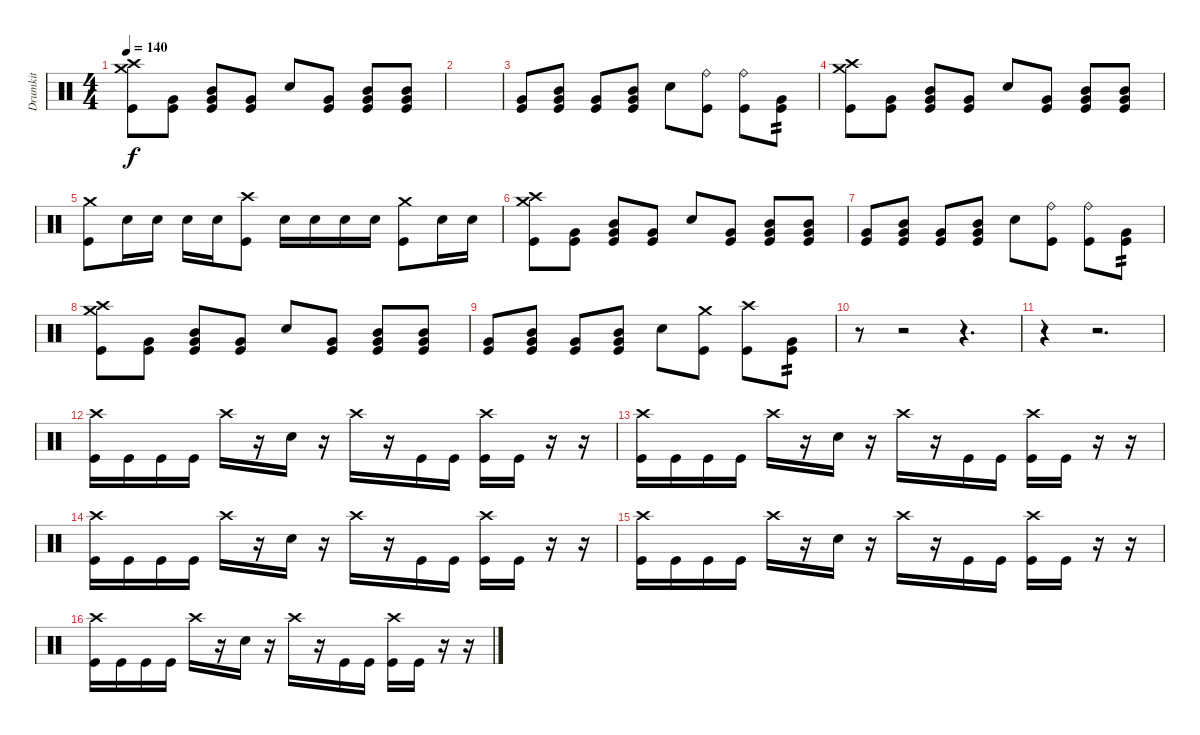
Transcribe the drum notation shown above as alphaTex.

\track ("Drumkit" "Drumkit") {instrument percussion}
\staff {score}
\articulation defaults
\ts (4 4)
\tempo 140
\clef neutral
\ks c
("Crash high (hit)" "Crash medium (hit)" "Kick (hit)").8{dy f} ("Very Low Tom (hit)" "Kick (hit)").8 ("Mid Tom (hit)" "Very Low Tom (hit)" "Kick (hit)").8 ("Very Low Tom (hit)" "Kick (hit)").8 "Snare (hit) 2".8 ("Very Low Tom (hit)" "Kick (hit)").8 ("Mid Tom (hit)" "Very Low Tom (hit)" "Kick (hit)").8 ("Mid Tom (hit)" "Very Low Tom (hit)" "Kick (hit)").8 |
|
("Very Low Tom (hit)" "Kick (hit)").8 ("Mid Tom (hit)" "Very Low Tom (hit)" "Kick (hit)").8 ("Very Low Tom (hit)" "Kick (hit)").8 ("Mid Tom (hit)" "Very Low Tom (hit)" "Kick (hit)").8 "Snare (hit) 2".8 ("Ride (bell)" "Kick (hit)").8 ("Ride (bell)" "Kick (hit)").8 ("Very Low Tom (hit)" "Kick (hit)").8{tp 2} |
("Crash high (hit)" "Crash medium (hit)" "Kick (hit)").8 ("Very Low Tom (hit)" "Kick (hit)").8 ("Mid Tom (hit)" "Very Low Tom (hit)" "Kick (hit)").8 ("Very Low Tom (hit)" "Kick (hit)").8 "Snare (hit) 2".8 ("Very Low Tom (hit)" "Kick (hit)").8 ("Mid Tom (hit)" "Very Low Tom (hit)" "Kick (hit)").8 ("Mid Tom (hit)" "Very Low Tom (hit)" "Kick (hit)").8 |
("Crash medium (hit)" "Kick (hit)").8 "Snare (hit) 2".16 "Snare (hit) 2".16 "Snare (hit) 2".16 "Snare (hit) 2".16 ("Crash high (hit)" "Kick (hit)").8 "Snare (hit) 2".16 "Snare (hit) 2".16 "Snare (hit) 2".16 "Snare (hit) 2".16 ("Crash medium (hit)" "Kick (hit)").8 "Snare (hit) 2".16 "Snare (hit) 2".16 |
("Crash high (hit)" "Crash medium (hit)" "Kick (hit)").8 ("Very Low Tom (hit)" "Kick (hit)").8 ("Mid Tom (hit)" "Very Low Tom (hit)" "Kick (hit)").8 ("Very Low Tom (hit)" "Kick (hit)").8 "Snare (hit) 2".8 ("Very Low Tom (hit)" "Kick (hit)").8 ("Mid Tom (hit)" "Very Low Tom (hit)" "Kick (hit)").8 ("Mid Tom (hit)" "Very Low Tom (hit)" "Kick (hit)").8 |
("Very Low Tom (hit)" "Kick (hit)").8 ("Mid Tom (hit)" "Very Low Tom (hit)" "Kick (hit)").8 ("Very Low Tom (hit)" "Kick (hit)").8 ("Mid Tom (hit)" "Very Low Tom (hit)" "Kick (hit)").8 "Snare (hit) 2".8 ("Ride (bell)" "Kick (hit)").8 ("Ride (bell)" "Kick (hit)").8 ("Very Low Tom (hit)" "Kick (hit)").8{tp 2} |
("Crash high (hit)" "Crash medium (hit)" "Kick (hit)").8 ("Very Low Tom (hit)" "Kick (hit)").8 ("Mid Tom (hit)" "Very Low Tom (hit)" "Kick (hit)").8 ("Very Low Tom (hit)" "Kick (hit)").8 "Snare (hit) 2".8 ("Very Low Tom (hit)" "Kick (hit)").8 ("Mid Tom (hit)" "Very Low Tom (hit)" "Kick (hit)").8 ("Mid Tom (hit)" "Very Low Tom (hit)" "Kick (hit)").8 |
("Very Low Tom (hit)" "Kick (hit)").8 ("Mid Tom (hit)" "Very Low Tom (hit)" "Kick (hit)").8 ("Very Low Tom (hit)" "Kick (hit)").8 ("Mid Tom (hit)" "Very Low Tom (hit)" "Kick (hit)").8 "Snare (hit) 2".8 ("Crash medium (hit)" "Kick (hit)").8 ("Crash high (hit)" "Kick (hit)").8 ("Very Low Tom (hit)" "Kick (hit)").8{tp 2} |
r.8 r.2 r.4{d} |
r.4 r.2{d} |
("Crash high (hit)" "Kick (hit)").16 "Kick (hit)".16 "Kick (hit)".16 "Kick (hit)".16 "Crash high (hit)".16 r.16 "Snare (hit) 2".16 r.16 "Crash high (hit)".16 r.16 "Kick (hit)".16 "Kick (hit)".16 ("Crash high (hit)" "Kick (hit)").16 "Kick (hit)".16 r.16 r.16 |
("Crash high (hit)" "Kick (hit)").16 "Kick (hit)".16 "Kick (hit)".16 "Kick (hit)".16 "Crash high (hit)".16 r.16 "Snare (hit) 2".16 r.16 "Crash high (hit)".16 r.16 "Kick (hit)".16 "Kick (hit)".16 ("Crash high (hit)" "Kick (hit)").16 "Kick (hit)".16 r.16 r.16 |
("Crash high (hit)" "Kick (hit)").16 "Kick (hit)".16 "Kick (hit)".16 "Kick (hit)".16 "Crash high (hit)".16 r.16 "Snare (hit) 2".16 r.16 "Crash high (hit)".16 r.16 "Kick (hit)".16 "Kick (hit)".16 ("Crash high (hit)" "Kick (hit)").16 "Kick (hit)".16 r.16 r.16 |
("Crash high (hit)" "Kick (hit)").16 "Kick (hit)".16 "Kick (hit)".16 "Kick (hit)".16 "Crash high (hit)".16 r.16 "Snare (hit) 2".16 r.16 "Crash high (hit)".16 r.16 "Kick (hit)".16 "Kick (hit)".16 ("Crash high (hit)" "Kick (hit)").16 "Kick (hit)".16 r.16 r.16 |
("Crash high (hit)" "Kick (hit)").16 "Kick (hit)".16 "Kick (hit)".16 "Kick (hit)".16 "Crash high (hit)".16 r.16 "Snare (hit) 2".16 r.16 "Crash high (hit)".16 r.16 "Kick (hit)".16 "Kick (hit)".16 ("Crash high (hit)" "Kick (hit)").16 "Kick (hit)".16 r.16 r.16
